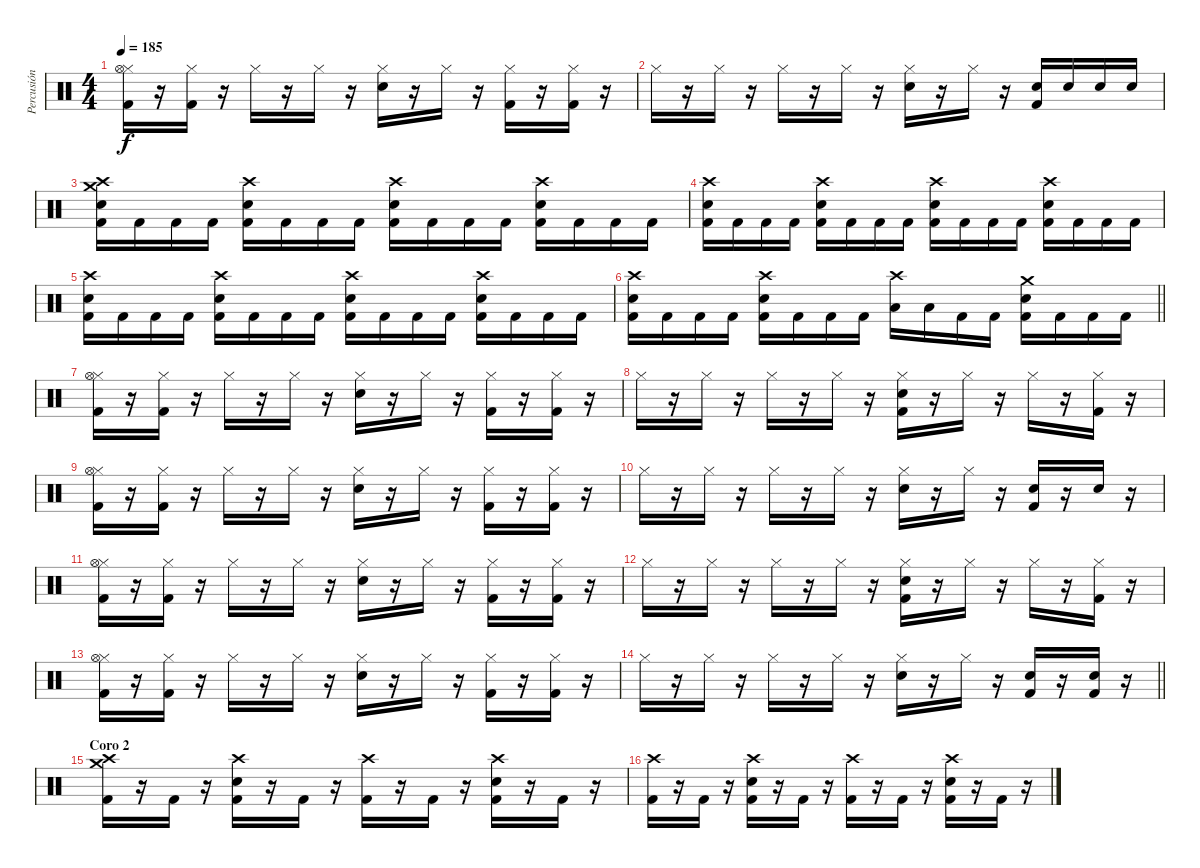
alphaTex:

\track ("Percusión" "Percusión") {instrument percussion}
\staff {score}
\articulation defaults
\ts (4 4)
\tempo 185
\clef neutral
\ks c
("Hi-Hat (closed)" "Hi-Hat (open)" "Kick (hit) 2").16{dy f} r.16 ("Hi-Hat (closed)" "Kick (hit) 2").16 r.16 "Hi-Hat (closed)".16 r.16 "Hi-Hat (closed)".16 r.16 ("Hi-Hat (closed)" "Electric Snare (hit)").16 r.16 "Hi-Hat (closed)".16 r.16 ("Hi-Hat (closed)" "Kick (hit) 2").16 r.16 ("Hi-Hat (closed)" "Kick (hit) 2").16 r.16 |
"Hi-Hat (closed)".16 r.16 "Hi-Hat (closed)".16 r.16 "Hi-Hat (closed)".16 r.16 "Hi-Hat (closed)".16 r.16 ("Hi-Hat (closed)" "Electric Snare (hit)").16 r.16 "Hi-Hat (closed)".16 r.16 ("Electric Snare (hit)" "Kick (hit) 2").16 "Electric Snare (hit)".16 "Electric Snare (hit)".16 "Electric Snare (hit)".16 |
("Crash high (hit)" "Crash medium (hit)" "Electric Snare (hit)" "Kick (hit) 2").16 "Kick (hit) 2".16 "Kick (hit) 2".16 "Kick (hit) 2".16 ("Crash high (hit)" "Electric Snare (hit)" "Kick (hit) 2").16 "Kick (hit) 2".16 "Kick (hit) 2".16 "Kick (hit) 2".16 ("Crash high (hit)" "Electric Snare (hit)" "Kick (hit) 2").16 "Kick (hit) 2".16 "Kick (hit) 2".16 "Kick (hit) 2".16 ("Crash high (hit)" "Electric Snare (hit)" "Kick (hit) 2").16 "Kick (hit) 2".16 "Kick (hit) 2".16 "Kick (hit) 2".16 |
("Crash high (hit)" "Electric Snare (hit)" "Kick (hit) 2").16 "Kick (hit) 2".16 "Kick (hit) 2".16 "Kick (hit) 2".16 ("Crash high (hit)" "Electric Snare (hit)" "Kick (hit) 2").16 "Kick (hit) 2".16 "Kick (hit) 2".16 "Kick (hit) 2".16 ("Crash high (hit)" "Electric Snare (hit)" "Kick (hit) 2").16 "Kick (hit) 2".16 "Kick (hit) 2".16 "Kick (hit) 2".16 ("Crash high (hit)" "Electric Snare (hit)" "Kick (hit) 2").16 "Kick (hit) 2".16 "Kick (hit) 2".16 "Kick (hit) 2".16 |
("Crash high (hit)" "Electric Snare (hit)" "Kick (hit) 2").16 "Kick (hit) 2".16 "Kick (hit) 2".16 "Kick (hit) 2".16 ("Crash high (hit)" "Electric Snare (hit)" "Kick (hit) 2").16 "Kick (hit) 2".16 "Kick (hit) 2".16 "Kick (hit) 2".16 ("Crash high (hit)" "Electric Snare (hit)" "Kick (hit) 2").16 "Kick (hit) 2".16 "Kick (hit) 2".16 "Kick (hit) 2".16 ("Crash high (hit)" "Electric Snare (hit)" "Kick (hit) 2").16 "Kick (hit) 2".16 "Kick (hit) 2".16 "Kick (hit) 2".16 |
\barLineRight lightlight
("Crash high (hit)" "Electric Snare (hit)" "Kick (hit) 2").16 "Kick (hit) 2".16 "Kick (hit) 2".16 "Kick (hit) 2".16 ("Crash high (hit)" "Electric Snare (hit)" "Kick (hit) 2").16 "Kick (hit) 2".16 "Kick (hit) 2".16 "Kick (hit) 2".16 ("Crash high (hit)" "Low Tom (hit)").16 "Low Tom (hit)".16 "Kick (hit) 2".16 "Kick (hit) 2".16 ("Crash medium (hit)" "Electric Snare (hit)" "Kick (hit) 2").16 "Kick (hit) 2".16 "Kick (hit) 2".16 "Kick (hit) 2".16 |
("Hi-Hat (closed)" "Hi-Hat (open)" "Kick (hit) 2").16 r.16 ("Hi-Hat (closed)" "Kick (hit) 2").16 r.16 "Hi-Hat (closed)".16 r.16 "Hi-Hat (closed)".16 r.16 ("Hi-Hat (closed)" "Electric Snare (hit)").16 r.16 "Hi-Hat (closed)".16 r.16 ("Hi-Hat (closed)" "Kick (hit) 2").16 r.16 ("Hi-Hat (closed)" "Kick (hit) 2").16 r.16 |
"Hi-Hat (closed)".16 r.16 "Hi-Hat (closed)".16 r.16 "Hi-Hat (closed)".16 r.16 "Hi-Hat (closed)".16 r.16 ("Hi-Hat (closed)" "Electric Snare (hit)" "Kick (hit) 2").16 r.16 "Hi-Hat (closed)".16 r.16 "Hi-Hat (closed)".16 r.16 ("Hi-Hat (closed)" "Kick (hit) 2").16 r.16 |
("Hi-Hat (closed)" "Hi-Hat (open)" "Kick (hit) 2").16 r.16 ("Hi-Hat (closed)" "Kick (hit) 2").16 r.16 "Hi-Hat (closed)".16 r.16 "Hi-Hat (closed)".16 r.16 ("Hi-Hat (closed)" "Electric Snare (hit)").16 r.16 "Hi-Hat (closed)".16 r.16 ("Hi-Hat (closed)" "Kick (hit) 2").16 r.16 ("Hi-Hat (closed)" "Kick (hit) 2").16 r.16 |
"Hi-Hat (closed)".16 r.16 "Hi-Hat (closed)".16 r.16 "Hi-Hat (closed)".16 r.16 "Hi-Hat (closed)".16 r.16 ("Hi-Hat (closed)" "Electric Snare (hit)").16 r.16 "Hi-Hat (closed)".16 r.16 ("Electric Snare (hit)" "Kick (hit) 2").16 r.16 "Electric Snare (hit)".16 r.16 |
("Hi-Hat (closed)" "Hi-Hat (open)" "Kick (hit) 2").16 r.16 ("Hi-Hat (closed)" "Kick (hit) 2").16 r.16 "Hi-Hat (closed)".16 r.16 "Hi-Hat (closed)".16 r.16 ("Hi-Hat (closed)" "Electric Snare (hit)").16 r.16 "Hi-Hat (closed)".16 r.16 ("Hi-Hat (closed)" "Kick (hit) 2").16 r.16 ("Hi-Hat (closed)" "Kick (hit) 2").16 r.16 |
"Hi-Hat (closed)".16 r.16 "Hi-Hat (closed)".16 r.16 "Hi-Hat (closed)".16 r.16 "Hi-Hat (closed)".16 r.16 ("Hi-Hat (closed)" "Electric Snare (hit)" "Kick (hit) 2").16 r.16 "Hi-Hat (closed)".16 r.16 "Hi-Hat (closed)".16 r.16 ("Hi-Hat (closed)" "Kick (hit) 2").16 r.16 |
("Hi-Hat (closed)" "Hi-Hat (open)" "Kick (hit) 2").16 r.16 ("Hi-Hat (closed)" "Kick (hit) 2").16 r.16 "Hi-Hat (closed)".16 r.16 "Hi-Hat (closed)".16 r.16 ("Hi-Hat (closed)" "Electric Snare (hit)").16 r.16 "Hi-Hat (closed)".16 r.16 ("Hi-Hat (closed)" "Kick (hit) 2").16 r.16 ("Hi-Hat (closed)" "Kick (hit) 2").16 r.16 |
\barLineRight lightlight "Hi-Hat (closed)".16
r.16 "Hi-Hat (closed)".16 r.16 "Hi-Hat (closed)".16 r.16 "Hi-Hat (closed)".16 r.16 ("Hi-Hat (closed)" "Electric Snare (hit)").16 r.16 "Hi-Hat (closed)".16 r.16 ("Electric Snare (hit)" "Kick (hit) 2").16 r.16 ("Electric Snare (hit)" "Kick (hit) 2").16 r.16 |
\section ("" "Coro 2")
("Crash high (hit)" "Crash medium (hit)" "Kick (hit) 2").16 r.16 "Kick (hit) 2".16 r.16 ("Crash high (hit)" "Electric Snare (hit)" "Kick (hit) 2").16 r.16 "Kick (hit) 2".16 r.16 ("Crash high (hit)" "Kick (hit) 2").16 r.16 "Kick (hit) 2".16 r.16 ("Crash high (hit)" "Electric Snare (hit)" "Kick (hit) 2").16 r.16 "Kick (hit) 2".16 r.16 |
("Crash high (hit)" "Kick (hit) 2").16 r.16 "Kick (hit) 2".16 r.16 ("Crash high (hit)" "Electric Snare (hit)" "Kick (hit) 2").16 r.16 "Kick (hit) 2".16 r.16 ("Crash high (hit)" "Kick (hit) 2").16 r.16 "Kick (hit) 2".16 r.16 ("Crash high (hit)" "Electric Snare (hit)" "Kick (hit) 2").16 r.16 "Kick (hit) 2".16 r.16
